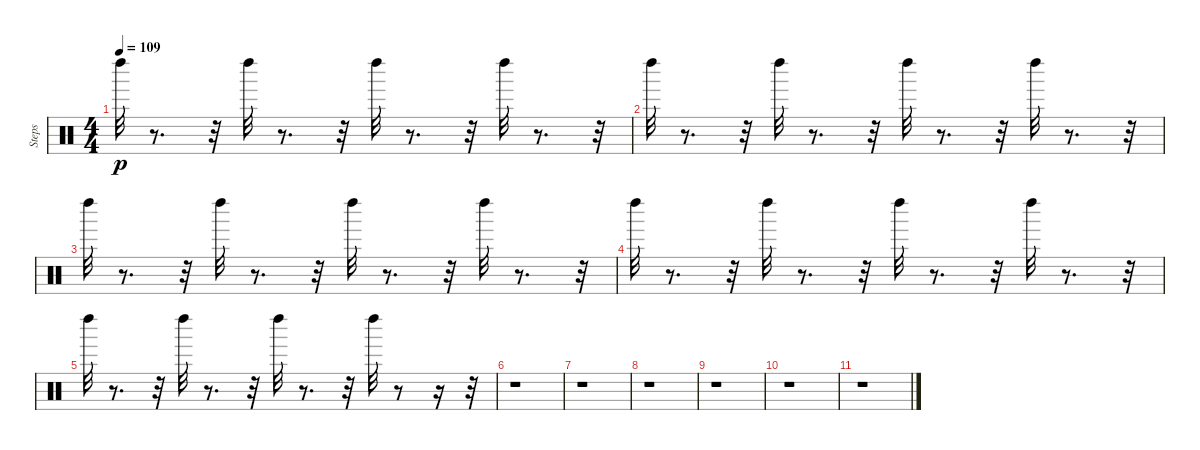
\track ("Steps" "Steps") {instrument percussion}
\staff {score}
\articulation defaults
\ts (4 4)
\tempo 109
\clef neutral
\ks c "Left Maraca (hit)".32{dy p}
r.8{d} r.32 "Left Maraca (hit)".32 r.8{d} r.32 "Left Maraca (hit)".32 r.8{d} r.32 "Left Maraca (hit)".32 r.8{d} r.32 |
"Left Maraca (hit)".32 r.8{d} r.32 "Left Maraca (hit)".32 r.8{d} r.32 "Left Maraca (hit)".32 r.8{d} r.32 "Left Maraca (hit)".32 r.8{d} r.32 |
"Left Maraca (hit)".32 r.8{d} r.32 "Left Maraca (hit)".32 r.8{d} r.32 "Left Maraca (hit)".32 r.8{d} r.32 "Left Maraca (hit)".32 r.8{d} r.32 |
"Left Maraca (hit)".32 r.8{d} r.32 "Left Maraca (hit)".32 r.8{d} r.32 "Left Maraca (hit)".32 r.8{d} r.32 "Left Maraca (hit)".32 r.8{d} r.32 |
"Left Maraca (hit)".32 r.8{d} r.32 "Left Maraca (hit)".32 r.8{d} r.32 "Left Maraca (hit)".32 r.8{d} r.32 "Left Maraca (hit)".32 r.8 r.16 r.32 |
r.1 |
r.1 |
r.1 |
r.1 |
r.1 |
r.1
